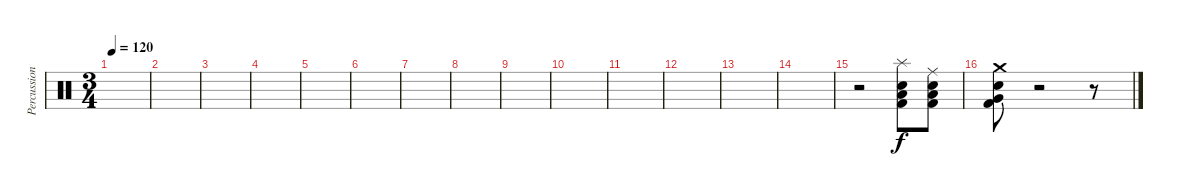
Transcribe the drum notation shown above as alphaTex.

\track ("Percussion" "Percussion") {instrument percussion}
\staff {score}
\articulation defaults
\ts (3 4)
\tempo 120
\clef neutral
\ks c
|
|
|
|
|
|
|
|
|
|
|
|
|
|
r.2 ("Kick (hit) 2" "Snare (hit) 2" "Low Floor Tom (hit)" "Splash (hit)").8 ("Kick (hit) 2" "Snare (hit) 2" "Low Floor Tom (hit)" "Ride (middle)").8 |
("Kick (hit) 2" "Snare (hit) 2" "Very Low Tom (hit)" "Crash medium (hit)").8 r.2 r.8
